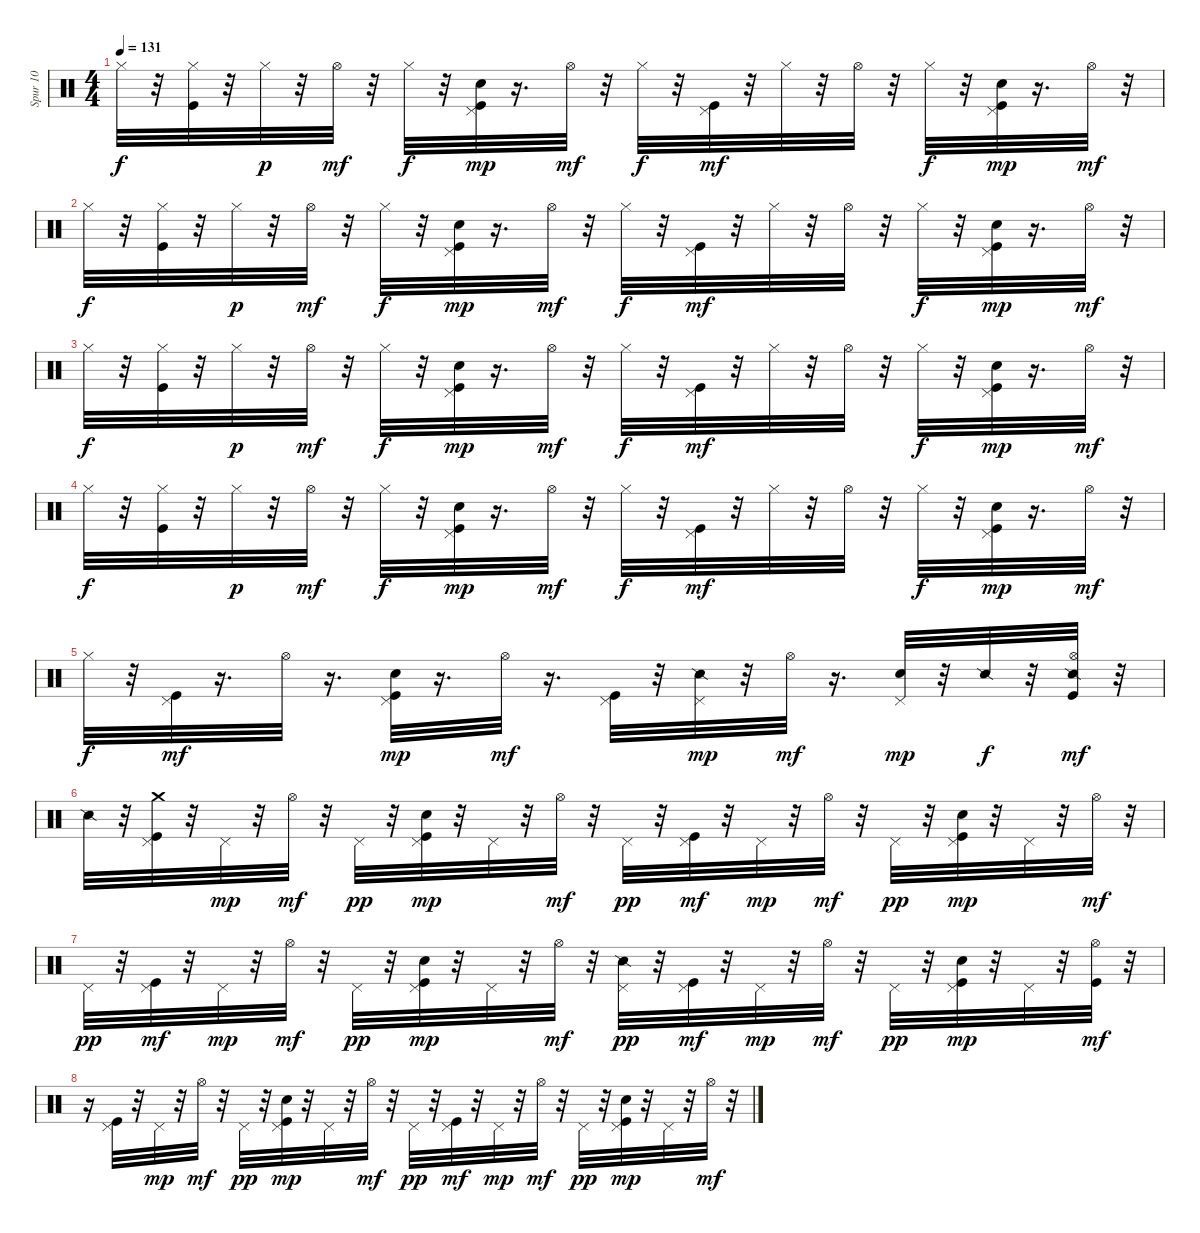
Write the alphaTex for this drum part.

\track ("Spur 10" "Spur 10") {instrument percussion}
\staff {score}
\articulation defaults
\ts (4 4)
\tempo 131
\clef neutral
\ks c "Hi-Hat (closed)".32{dy f}
r.32 ("Kick (hit)" "Hi-Hat (closed)").32 r.32 "Hi-Hat (closed)".32{dy p} r.32 "Hi-Hat (open)".32{dy mf} r.32 "Hi-Hat (closed)".32{dy f} r.32 ("Kick (hit)" "Hand Clap (hit)" "Pedal Hi-Hat (hit)").32{dy mp} r.16{d} "Hi-Hat (open)".32{dy mf} r.32 "Hi-Hat (closed)".32{dy f} r.32 ("Kick (hit)" "Pedal Hi-Hat (hit)").32{dy mf} r.32 "Hi-Hat (closed)".32 r.32 "Hi-Hat (open)".32 r.32 "Hi-Hat (closed)".32{dy f} r.32 ("Kick (hit)" "Hand Clap (hit)" "Pedal Hi-Hat (hit)").32{dy mp} r.16{d} "Hi-Hat (open)".32{dy mf} r.32 |
"Hi-Hat (closed)".32{dy f} r.32 ("Kick (hit)" "Hi-Hat (closed)").32 r.32 "Hi-Hat (closed)".32{dy p} r.32 "Hi-Hat (open)".32{dy mf} r.32 "Hi-Hat (closed)".32{dy f} r.32 ("Kick (hit)" "Hand Clap (hit)" "Pedal Hi-Hat (hit)").32{dy mp} r.16{d} "Hi-Hat (open)".32{dy mf} r.32 "Hi-Hat (closed)".32{dy f} r.32 ("Kick (hit)" "Pedal Hi-Hat (hit)").32{dy mf} r.32 "Hi-Hat (closed)".32 r.32 "Hi-Hat (open)".32 r.32 "Hi-Hat (closed)".32{dy f} r.32 ("Kick (hit)" "Hand Clap (hit)" "Pedal Hi-Hat (hit)").32{dy mp} r.16{d} "Hi-Hat (open)".32{dy mf} r.32 |
"Hi-Hat (closed)".32{dy f} r.32 ("Kick (hit)" "Hi-Hat (closed)").32 r.32 "Hi-Hat (closed)".32{dy p} r.32 "Hi-Hat (open)".32{dy mf} r.32 "Hi-Hat (closed)".32{dy f} r.32 ("Kick (hit)" "Hand Clap (hit)" "Pedal Hi-Hat (hit)").32{dy mp} r.16{d} "Hi-Hat (open)".32{dy mf} r.32 "Hi-Hat (closed)".32{dy f} r.32 ("Kick (hit)" "Pedal Hi-Hat (hit)").32{dy mf} r.32 "Hi-Hat (closed)".32 r.32 "Hi-Hat (open)".32 r.32 "Hi-Hat (closed)".32{dy f} r.32 ("Kick (hit)" "Hand Clap (hit)" "Pedal Hi-Hat (hit)").32{dy mp} r.16{d} "Hi-Hat (open)".32{dy mf} r.32 |
"Hi-Hat (closed)".32{dy f} r.32 ("Kick (hit)" "Hi-Hat (closed)").32 r.32 "Hi-Hat (closed)".32{dy p} r.32 "Hi-Hat (open)".32{dy mf} r.32 "Hi-Hat (closed)".32{dy f} r.32 ("Kick (hit)" "Hand Clap (hit)" "Pedal Hi-Hat (hit)").32{dy mp} r.16{d} "Hi-Hat (open)".32{dy mf} r.32 "Hi-Hat (closed)".32{dy f} r.32 ("Kick (hit)" "Pedal Hi-Hat (hit)").32{dy mf} r.32 "Hi-Hat (closed)".32 r.32 "Hi-Hat (open)".32 r.32 "Hi-Hat (closed)".32{dy f} r.32 ("Kick (hit)" "Hand Clap (hit)" "Pedal Hi-Hat (hit)").32{dy mp} r.16{d} "Hi-Hat (open)".32{dy mf} r.32 |
"Hi-Hat (closed)".32{dy f} r.32 ("Kick (hit)" "Pedal Hi-Hat (hit)").32{dy mf} r.16{d} "Hi-Hat (open)".32 r.16{d} ("Kick (hit)" "Hand Clap (hit)" "Pedal Hi-Hat (hit)").32{dy mp} r.16{d} "Hi-Hat (open)".32{dy mf} r.16{d} ("Kick (hit)" "Pedal Hi-Hat (hit)").32 r.32 ("Snare (side stick) 2" "Pedal Hi-Hat (hit)").32{dy mp} r.32 "Hi-Hat (open)".32{dy mf} r.16{d} ("Hand Clap (hit)" "Pedal Hi-Hat (hit)").32{dy mp} r.32 "Snare (side stick) 2".32{dy f} r.32 ("Snare (side stick) 2" "Kick (hit)" "Hi-Hat (open)").32{dy mf} r.32 |
"Snare (side stick) 2".32 r.32 ("Crash medium (hit)" "Kick (hit)" "Pedal Hi-Hat (hit)").32 r.32 "Pedal Hi-Hat (hit)".32{dy mp} r.32 "Hi-Hat (open)".32{dy mf} r.32 "Pedal Hi-Hat (hit)".32{dy pp} r.32 ("Kick (hit)" "Hand Clap (hit)" "Pedal Hi-Hat (hit)").32{dy mp} r.32 "Pedal Hi-Hat (hit)".32 r.32 "Hi-Hat (open)".32{dy mf} r.32 "Pedal Hi-Hat (hit)".32{dy pp} r.32 ("Kick (hit)" "Pedal Hi-Hat (hit)").32{dy mf} r.32 "Pedal Hi-Hat (hit)".32{dy mp} r.32 "Hi-Hat (open)".32{dy mf} r.32 "Pedal Hi-Hat (hit)".32{dy pp} r.32 ("Kick (hit)" "Hand Clap (hit)" "Pedal Hi-Hat (hit)").32{dy mp} r.32 "Pedal Hi-Hat (hit)".32 r.32 "Hi-Hat (open)".32{dy mf} r.32 |
"Pedal Hi-Hat (hit)".32{dy pp} r.32 ("Kick (hit)" "Pedal Hi-Hat (hit)").32{dy mf} r.32 "Pedal Hi-Hat (hit)".32{dy mp} r.32 "Hi-Hat (open)".32{dy mf} r.32 "Pedal Hi-Hat (hit)".32{dy pp} r.32 ("Kick (hit)" "Hand Clap (hit)" "Pedal Hi-Hat (hit)").32{dy mp} r.32 "Pedal Hi-Hat (hit)".32 r.32 "Hi-Hat (open)".32{dy mf} r.32 ("Pedal Hi-Hat (hit)" "Snare (side stick) 2").32{dy pp} r.32 ("Kick (hit)" "Pedal Hi-Hat (hit)").32{dy mf} r.32 "Pedal Hi-Hat (hit)".32{dy mp} r.32 "Hi-Hat (open)".32{dy mf} r.32 "Pedal Hi-Hat (hit)".32{dy pp} r.32 ("Kick (hit)" "Hand Clap (hit)" "Pedal Hi-Hat (hit)").32{dy mp} r.32 "Pedal Hi-Hat (hit)".32 r.32 ("Kick (hit)" "Hi-Hat (open)").32{dy mf} r.32 |
r.16 ("Kick (hit)" "Pedal Hi-Hat (hit)").32 r.32 "Pedal Hi-Hat (hit)".32{dy mp} r.32 "Hi-Hat (open)".32{dy mf} r.32 "Pedal Hi-Hat (hit)".32{dy pp} r.32 ("Kick (hit)" "Hand Clap (hit)" "Pedal Hi-Hat (hit)").32{dy mp} r.32 "Pedal Hi-Hat (hit)".32 r.32 "Hi-Hat (open)".32{dy mf} r.32 "Pedal Hi-Hat (hit)".32{dy pp} r.32 ("Kick (hit)" "Pedal Hi-Hat (hit)").32{dy mf} r.32 "Pedal Hi-Hat (hit)".32{dy mp} r.32 "Hi-Hat (open)".32{dy mf} r.32 "Pedal Hi-Hat (hit)".32{dy pp} r.32 ("Kick (hit)" "Hand Clap (hit)" "Pedal Hi-Hat (hit)").32{dy mp} r.32 "Pedal Hi-Hat (hit)".32 r.32 "Hi-Hat (open)".32{dy mf} r.32
